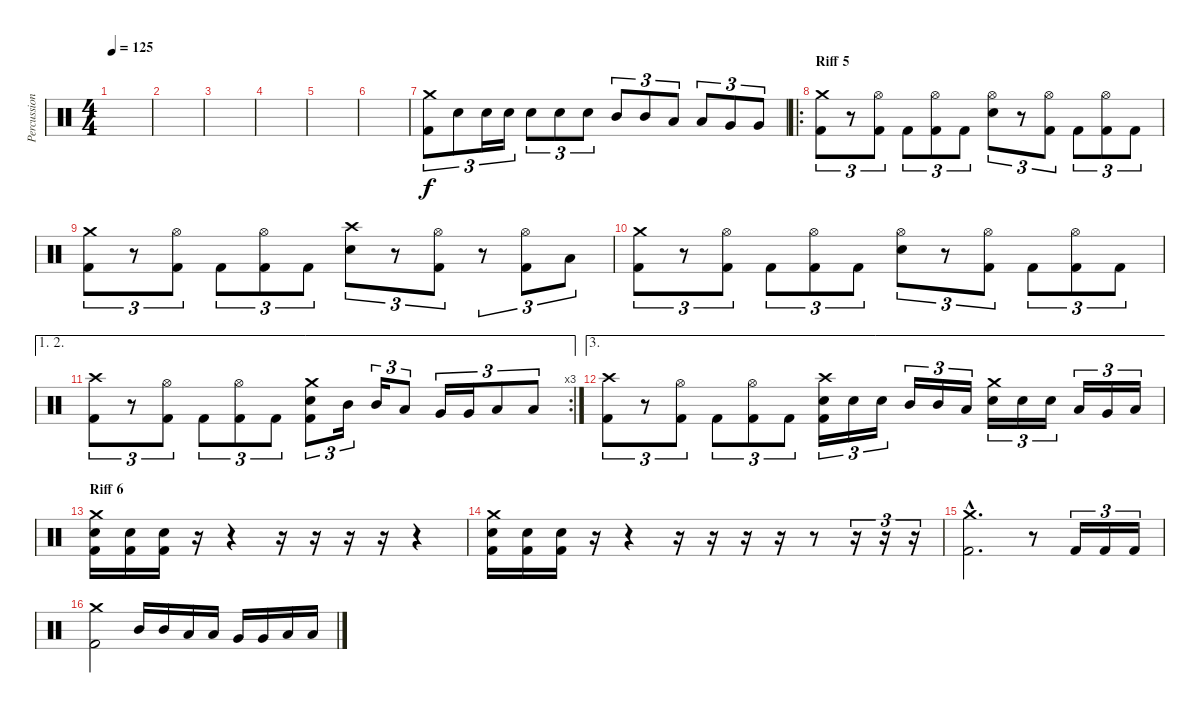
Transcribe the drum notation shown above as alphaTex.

\track ("Percussion" "Percussion") {instrument percussion}
\staff {score}
\articulation defaults
\ts (4 4)
\tempo 125
\clef neutral
\ks c
|
|
|
|
|
|
("Crash medium (hit)" "Kick (hit) 2").8{tu (3 2)} "Electric Snare (hit)".8{tu (3 2)} "Electric Snare (hit)".16{tu (3 2)} "Electric Snare (hit)".16{tu (3 2)} "Electric Snare (hit)".8{tu (3 2)} "Electric Snare (hit)".8{tu (3 2)} "Electric Snare (hit)".8{tu (3 2)} "Mid Tom (hit)".8{tu (3 2)} "Mid Tom (hit)".8{tu (3 2)} "Low Tom (hit)".8{tu (3 2)} "Low Tom (hit)".8{tu (3 2)} "Very Low Tom (hit)".8{tu (3 2)} "Very Low Tom (hit)".8{tu (3 2)} |
\ro
\section ("" "Riff 5")
("Crash medium (hit)" "Kick (hit) 2").8{tu (3 2)} r.8{tu (3 2)} ("Hi-Hat (open)" "Kick (hit) 2").8{tu (3 2)} "Kick (hit) 2".8{tu (3 2)} ("Hi-Hat (open)" "Kick (hit) 2").8{tu (3 2)} "Kick (hit) 2".8{tu (3 2)} ("Hi-Hat (open)" "Electric Snare (hit)").8{tu (3 2)} r.8{tu (3 2)} ("Hi-Hat (open)" "Kick (hit) 2").8{tu (3 2)} "Kick (hit) 2".8{tu (3 2)} ("Hi-Hat (open)" "Kick (hit) 2").8{tu (3 2)} "Kick (hit) 2".8{tu (3 2)} |
("Crash medium (hit)" "Kick (hit) 2").8{tu (3 2)} r.8{tu (3 2)} ("Hi-Hat (open)" "Kick (hit) 2").8{tu (3 2)} "Kick (hit) 2".8{tu (3 2)} ("Hi-Hat (open)" "Kick (hit) 2").8{tu (3 2)} "Kick (hit) 2".8{tu (3 2)} ("Crash high (hit)" "Electric Snare (hit)").8{tu (3 2)} r.8{tu (3 2)} ("Hi-Hat (open)" "Kick (hit) 2").8{tu (3 2)} r.8{tu (3 2)} ("Hi-Hat (open)" "Kick (hit) 2").8{tu (3 2)} "Low Floor Tom (hit)".8{tu (3 2)} |
("Crash medium (hit)" "Kick (hit) 2").8{tu (3 2)} r.8{tu (3 2)} ("Hi-Hat (open)" "Kick (hit) 2").8{tu (3 2)} "Kick (hit) 2".8{tu (3 2)} ("Hi-Hat (open)" "Kick (hit) 2").8{tu (3 2)} "Kick (hit) 2".8{tu (3 2)} ("Hi-Hat (open)" "Electric Snare (hit)").8{tu (3 2)} r.8{tu (3 2)} ("Hi-Hat (open)" "Kick (hit) 2").8{tu (3 2)} "Kick (hit) 2".8{tu (3 2)} ("Hi-Hat (open)" "Kick (hit) 2").8{tu (3 2)} "Kick (hit) 2".8{tu (3 2)} |
\ae (1 2)
\rc 3
("Crash high (hit)" "Kick (hit) 2").8{tu (3 2)} r.8{tu (3 2)} ("Hi-Hat (open)" "Kick (hit) 2").8{tu (3 2)} "Kick (hit) 2".8{tu (3 2)} ("Hi-Hat (open)" "Kick (hit) 2").8{tu (3 2)} "Kick (hit) 2".8{tu (3 2)} ("Crash medium (hit)" "Electric Snare (hit)" "Kick (hit) 2").8{tu (3 2)} "Mid Tom (hit)".16{tu (3 2)} "Mid Tom (hit)".16{tu (3 2)} "Low Tom (hit)".8{tu (3 2)} "Very Low Tom (hit)".16{tu (3 2)} "Very Low Tom (hit)".16{tu (3 2)} "Low Floor Tom (hit)".8{tu (3 2)} "Low Floor Tom (hit)".8{tu (3 2)} |
\ae 3
("Crash high (hit)" "Kick (hit) 2").8{tu (3 2)} r.8{tu (3 2)} ("Hi-Hat (open)" "Kick (hit) 2").8{tu (3 2)} "Kick (hit) 2".8{tu (3 2)} ("Hi-Hat (open)" "Kick (hit) 2").8{tu (3 2)} "Kick (hit) 2".8{tu (3 2)} ("Crash high (hit)" "Electric Snare (hit)" "Kick (hit) 2").16{tu (3 2)} "Electric Snare (hit)".16{tu (3 2)} "Electric Snare (hit)".16{tu (3 2)} "Mid Tom (hit)".16{tu (3 2)} "Mid Tom (hit)".16{tu (3 2)} "Low Tom (hit)".16{tu (3 2)} ("Crash medium (hit)" "Electric Snare (hit)").16{tu (3 2)} "Electric Snare (hit)".16{tu (3 2)} "Electric Snare (hit)".16{tu (3 2)} "Low Tom (hit)".16{tu (3 2)} "Very Low Tom (hit)".16{tu (3 2)} "Low Floor Tom (hit)".16{tu (3 2)} |
\section ("" "Riff 6")
("Crash medium (hit)" "Electric Snare (hit)" "Kick (hit) 2").16 ("Electric Snare (hit)" "Kick (hit) 2").16 ("Electric Snare (hit)" "Kick (hit) 2").16 r.16 r.4 r.16 r.16 r.16 r.16 r.4 |
("Crash medium (hit)" "Electric Snare (hit)" "Kick (hit) 2").16 ("Electric Snare (hit)" "Kick (hit) 2").16 ("Electric Snare (hit)" "Kick (hit) 2").16 r.16 r.4 r.16 r.16 r.16 r.16 r.8 r.16{tu (3 2)} r.16{tu (3 2)} r.16{tu (3 2)} |
("Crash medium (hit)"{hac} "Kick (hit) 2"{hac}).2{d} r.8 "Kick (hit) 2".16{tu (3 2)} "Kick (hit) 2".16{tu (3 2)} "Kick (hit) 2".16{tu (3 2)} |
("Crash medium (hit)" "Kick (hit) 2").2 "Mid Tom (hit)".16 "Mid Tom (hit)".16 "Low Tom (hit)".16 "Low Tom (hit)".16 "Very Low Tom (hit)".16 "Very Low Tom (hit)".16 "Low Floor Tom (hit)".16 "Low Floor Tom (hit)".16
